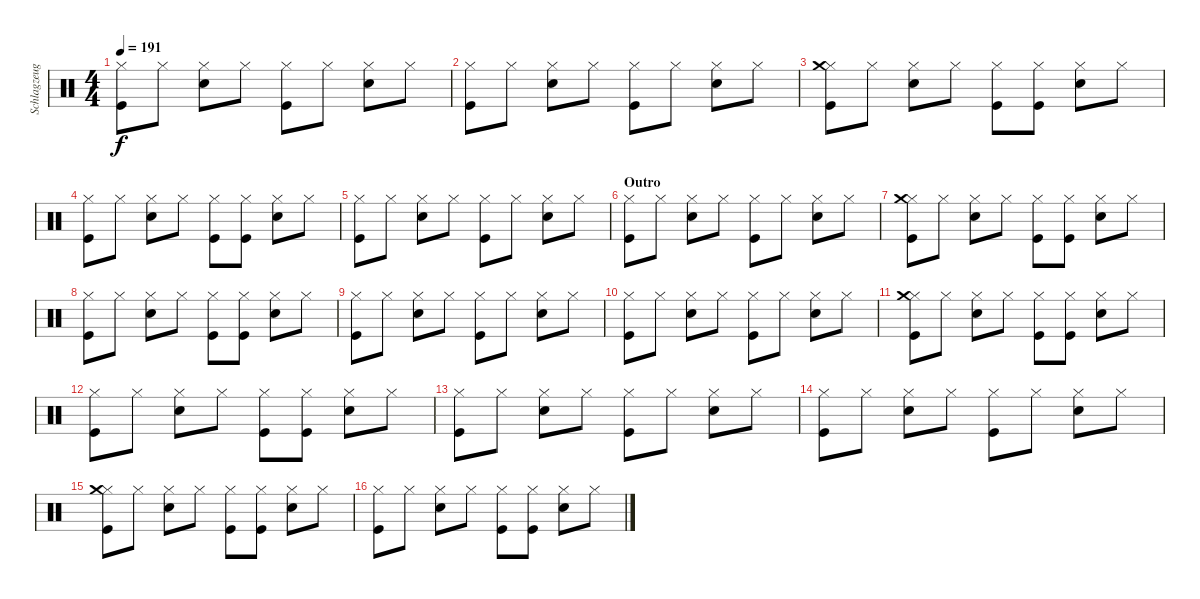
\track ("Schlagzeug - Bela B." "Schlagzeug") {instrument percussion}
\staff {score}
\articulation defaults
\ts (4 4)
\tempo 191
\clef neutral
\ks c
("Kick (hit)" "Hi-Hat (closed)").8{dy f} "Hi-Hat (closed)".8 ("Hi-Hat (closed)" "Electric Snare (hit)").8 "Hi-Hat (closed)".8 ("Hi-Hat (closed)" "Kick (hit)").8 "Hi-Hat (closed)".8 ("Hi-Hat (closed)" "Electric Snare (hit)").8 "Hi-Hat (closed)".8 |
("Kick (hit)" "Hi-Hat (closed)").8 "Hi-Hat (closed)".8 ("Hi-Hat (closed)" "Electric Snare (hit)").8 "Hi-Hat (closed)".8 ("Hi-Hat (closed)" "Kick (hit)").8 "Hi-Hat (closed)".8 ("Hi-Hat (closed)" "Electric Snare (hit)").8 "Hi-Hat (closed)".8 |
("Kick (hit)" "Hi-Hat (closed)" "Crash medium (hit)").8 "Hi-Hat (closed)".8 ("Hi-Hat (closed)" "Electric Snare (hit)").8 "Hi-Hat (closed)".8 ("Hi-Hat (closed)" "Kick (hit)").8 ("Hi-Hat (closed)" "Kick (hit)").8 ("Hi-Hat (closed)" "Electric Snare (hit)").8 "Hi-Hat (closed)".8 |
("Kick (hit)" "Hi-Hat (closed)").8 "Hi-Hat (closed)".8 ("Hi-Hat (closed)" "Electric Snare (hit)").8 "Hi-Hat (closed)".8 ("Hi-Hat (closed)" "Kick (hit)").8 ("Hi-Hat (closed)" "Kick (hit)").8 ("Hi-Hat (closed)" "Electric Snare (hit)").8 "Hi-Hat (closed)".8 |
("Kick (hit)" "Hi-Hat (closed)").8 "Hi-Hat (closed)".8 ("Hi-Hat (closed)" "Electric Snare (hit)").8 "Hi-Hat (closed)".8 ("Hi-Hat (closed)" "Kick (hit)").8 "Hi-Hat (closed)".8 ("Hi-Hat (closed)" "Electric Snare (hit)").8 "Hi-Hat (closed)".8 |
\section ("" "Outro")
("Kick (hit)" "Hi-Hat (closed)").8 "Hi-Hat (closed)".8 ("Hi-Hat (closed)" "Electric Snare (hit)").8 "Hi-Hat (closed)".8 ("Hi-Hat (closed)" "Kick (hit)").8 "Hi-Hat (closed)".8 ("Hi-Hat (closed)" "Electric Snare (hit)").8 "Hi-Hat (closed)".8 |
("Kick (hit)" "Hi-Hat (closed)" "Crash medium (hit)").8 "Hi-Hat (closed)".8 ("Hi-Hat (closed)" "Electric Snare (hit)").8 "Hi-Hat (closed)".8 ("Hi-Hat (closed)" "Kick (hit)").8 ("Hi-Hat (closed)" "Kick (hit)").8 ("Hi-Hat (closed)" "Electric Snare (hit)").8 "Hi-Hat (closed)".8 |
("Kick (hit)" "Hi-Hat (closed)").8 "Hi-Hat (closed)".8 ("Hi-Hat (closed)" "Electric Snare (hit)").8 "Hi-Hat (closed)".8 ("Hi-Hat (closed)" "Kick (hit)").8 ("Hi-Hat (closed)" "Kick (hit)").8 ("Hi-Hat (closed)" "Electric Snare (hit)").8 "Hi-Hat (closed)".8 |
("Kick (hit)" "Hi-Hat (closed)").8 "Hi-Hat (closed)".8 ("Hi-Hat (closed)" "Electric Snare (hit)").8 "Hi-Hat (closed)".8 ("Hi-Hat (closed)" "Kick (hit)").8 "Hi-Hat (closed)".8 ("Hi-Hat (closed)" "Electric Snare (hit)").8 "Hi-Hat (closed)".8 |
("Kick (hit)" "Hi-Hat (closed)").8 "Hi-Hat (closed)".8 ("Hi-Hat (closed)" "Electric Snare (hit)").8 "Hi-Hat (closed)".8 ("Hi-Hat (closed)" "Kick (hit)").8 "Hi-Hat (closed)".8 ("Hi-Hat (closed)" "Electric Snare (hit)").8 "Hi-Hat (closed)".8 |
("Kick (hit)" "Hi-Hat (closed)" "Crash medium (hit)").8 "Hi-Hat (closed)".8 ("Hi-Hat (closed)" "Electric Snare (hit)").8 "Hi-Hat (closed)".8 ("Hi-Hat (closed)" "Kick (hit)").8 ("Hi-Hat (closed)" "Kick (hit)").8 ("Hi-Hat (closed)" "Electric Snare (hit)").8 "Hi-Hat (closed)".8 |
("Kick (hit)" "Hi-Hat (closed)").8 "Hi-Hat (closed)".8 ("Hi-Hat (closed)" "Electric Snare (hit)").8 "Hi-Hat (closed)".8 ("Hi-Hat (closed)" "Kick (hit)").8 ("Hi-Hat (closed)" "Kick (hit)").8 ("Hi-Hat (closed)" "Electric Snare (hit)").8 "Hi-Hat (closed)".8 |
("Kick (hit)" "Hi-Hat (closed)").8 "Hi-Hat (closed)".8 ("Hi-Hat (closed)" "Electric Snare (hit)").8 "Hi-Hat (closed)".8 ("Hi-Hat (closed)" "Kick (hit)").8 "Hi-Hat (closed)".8 ("Hi-Hat (closed)" "Electric Snare (hit)").8 "Hi-Hat (closed)".8 |
("Kick (hit)" "Hi-Hat (closed)").8 "Hi-Hat (closed)".8 ("Hi-Hat (closed)" "Electric Snare (hit)").8 "Hi-Hat (closed)".8 ("Hi-Hat (closed)" "Kick (hit)").8 "Hi-Hat (closed)".8 ("Hi-Hat (closed)" "Electric Snare (hit)").8 "Hi-Hat (closed)".8 |
("Kick (hit)" "Hi-Hat (closed)" "Crash medium (hit)").8 "Hi-Hat (closed)".8 ("Hi-Hat (closed)" "Electric Snare (hit)").8 "Hi-Hat (closed)".8 ("Hi-Hat (closed)" "Kick (hit)").8 ("Hi-Hat (closed)" "Kick (hit)").8 ("Hi-Hat (closed)" "Electric Snare (hit)").8 "Hi-Hat (closed)".8 |
("Kick (hit)" "Hi-Hat (closed)").8 "Hi-Hat (closed)".8 ("Hi-Hat (closed)" "Electric Snare (hit)").8 "Hi-Hat (closed)".8 ("Hi-Hat (closed)" "Kick (hit)").8 ("Hi-Hat (closed)" "Kick (hit)").8 ("Hi-Hat (closed)" "Electric Snare (hit)").8 "Hi-Hat (closed)".8
